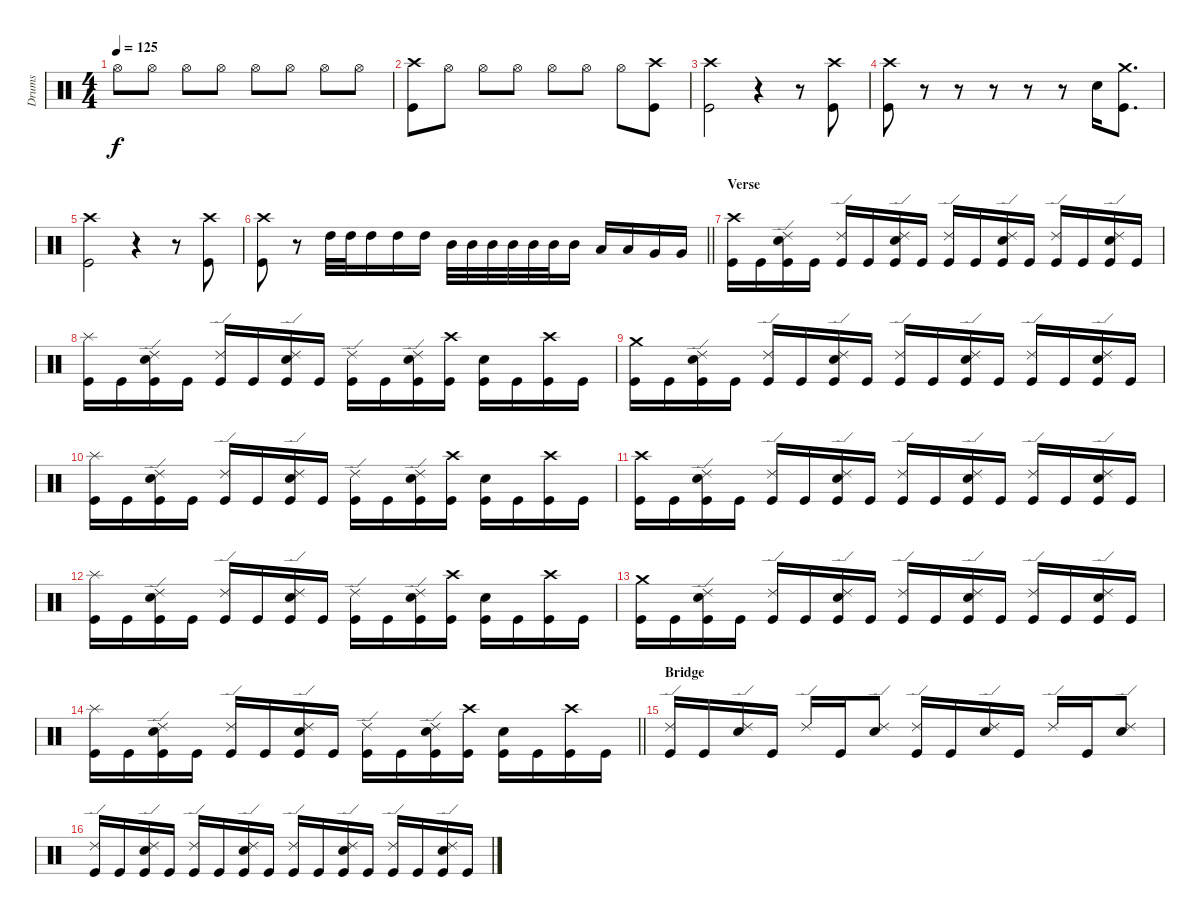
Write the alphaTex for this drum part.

\track ("Drums" "Drums") {instrument percussion}
\staff {score}
\articulation defaults
\ts (4 4)
\tempo 125
\clef neutral
\ks c "Hi-Hat (open)".8{dy f} "Hi-Hat (open)".8 "Hi-Hat (open)".8 "Hi-Hat (open)".8 "Hi-Hat (open)".8 "Hi-Hat (open)".8 "Hi-Hat (open)".8 "Hi-Hat (open)".8
|
("Crash high (hit)" "Kick (hit)").8 "Hi-Hat (open)".8 "Hi-Hat (open)".8 "Hi-Hat (open)".8 "Hi-Hat (open)".8 "Hi-Hat (open)".8 "Hi-Hat (open)".8 ("Crash high (hit)" "Kick (hit)").8 |
("Crash high (hit)" "Kick (hit)").2 r.4 r.8 ("Crash high (hit)" "Kick (hit)").8 |
("Crash high (hit)" "Kick (hit)").8 r.8 r.8 r.8 r.8 r.8 "Snare (hit) 2".16 ("Crash medium (hit)" "Kick (hit)").8{d} |
("Crash high (hit)" "Kick (hit)").2 r.4 r.8 ("Crash high (hit)" "Kick (hit)").8 |
\barLineRight lightlight
("Crash high (hit)" "Kick (hit)").8 r.8 "High Tom (hit)".32 "High Tom (hit)".32 "High Tom (hit)".16 "High Tom (hit)".16 "High Tom (hit)".16 "Mid Tom (hit)".32 "Mid Tom (hit)".32 "Mid Tom (hit)".32 "Mid Tom (hit)".32 "Mid Tom (hit)".32 "Mid Tom (hit)".32 "Mid Tom (hit)".16 "Low Tom (hit)".16 "Low Tom (hit)".16 "Very Low Tom (hit)".16 "Very Low Tom (hit)".16 |
\section ("" "Verse")
("Crash high (hit)" "Kick (hit)").16 "Kick (hit)".16 ("Ride (edge) 2" "Snare (hit) 2" "Kick (hit)").16 "Kick (hit)".16 ("Ride (edge) 2" "Kick (hit)").16 "Kick (hit)".16 ("Ride (edge) 2" "Snare (hit) 2" "Kick (hit)").16 "Kick (hit)".16 ("Ride (edge) 2" "Kick (hit)").16 "Kick (hit)".16 ("Ride (edge) 2" "Snare (hit) 2" "Kick (hit)").16 "Kick (hit)".16 ("Ride (edge) 2" "Kick (hit)").16 "Kick (hit)".16 ("Ride (edge) 2" "Snare (hit) 2" "Kick (hit)").16 "Kick (hit)".16 |
("Splash (hit)" "Kick (hit)").16 "Kick (hit)".16 ("Ride (edge) 2" "Snare (hit) 2" "Kick (hit)").16 "Kick (hit)".16 ("Ride (edge) 2" "Kick (hit)").16 "Kick (hit)".16 ("Ride (edge) 2" "Snare (hit) 2" "Kick (hit)").16 "Kick (hit)".16 ("Ride (edge) 2" "Kick (hit)").16 "Kick (hit)".16 ("Ride (edge) 2" "Snare (hit) 2" "Kick (hit)").16 ("Crash high (hit)" "Kick (hit)").16 ("Snare (hit) 2" "Kick (hit)").16 "Kick (hit)".16 ("Crash high (hit)" "Kick (hit)").16 "Kick (hit)".16 |
("Crash medium (hit)" "Kick (hit)").16 "Kick (hit)".16 ("Ride (edge) 2" "Snare (hit) 2" "Kick (hit)").16 "Kick (hit)".16 ("Ride (edge) 2" "Kick (hit)").16 "Kick (hit)".16 ("Ride (edge) 2" "Snare (hit) 2" "Kick (hit)").16 "Kick (hit)".16 ("Ride (edge) 2" "Kick (hit)").16 "Kick (hit)".16 ("Ride (edge) 2" "Snare (hit) 2" "Kick (hit)").16 "Kick (hit)".16 ("Ride (edge) 2" "Kick (hit)").16 "Kick (hit)".16 ("Ride (edge) 2" "Snare (hit) 2" "Kick (hit)").16 "Kick (hit)".16 |
("Splash (hit)" "Kick (hit)").16 "Kick (hit)".16 ("Ride (edge) 2" "Snare (hit) 2" "Kick (hit)").16 "Kick (hit)".16 ("Ride (edge) 2" "Kick (hit)").16 "Kick (hit)".16 ("Ride (edge) 2" "Snare (hit) 2" "Kick (hit)").16 "Kick (hit)".16 ("Ride (edge) 2" "Kick (hit)").16 "Kick (hit)".16 ("Ride (edge) 2" "Snare (hit) 2" "Kick (hit)").16 ("Crash high (hit)" "Kick (hit)").16 ("Snare (hit) 2" "Kick (hit)").16 "Kick (hit)".16 ("Crash high (hit)" "Kick (hit)").16 "Kick (hit)".16 |
("Crash high (hit)" "Kick (hit)").16 "Kick (hit)".16 ("Ride (edge) 2" "Snare (hit) 2" "Kick (hit)").16 "Kick (hit)".16 ("Ride (edge) 2" "Kick (hit)").16 "Kick (hit)".16 ("Ride (edge) 2" "Snare (hit) 2" "Kick (hit)").16 "Kick (hit)".16 ("Ride (edge) 2" "Kick (hit)").16 "Kick (hit)".16 ("Ride (edge) 2" "Snare (hit) 2" "Kick (hit)").16 "Kick (hit)".16 ("Ride (edge) 2" "Kick (hit)").16 "Kick (hit)".16 ("Ride (edge) 2" "Snare (hit) 2" "Kick (hit)").16 "Kick (hit)".16 |
("Splash (hit)" "Kick (hit)").16 "Kick (hit)".16 ("Ride (edge) 2" "Snare (hit) 2" "Kick (hit)").16 "Kick (hit)".16 ("Ride (edge) 2" "Kick (hit)").16 "Kick (hit)".16 ("Ride (edge) 2" "Snare (hit) 2" "Kick (hit)").16 "Kick (hit)".16 ("Ride (edge) 2" "Kick (hit)").16 "Kick (hit)".16 ("Ride (edge) 2" "Snare (hit) 2" "Kick (hit)").16 ("Crash high (hit)" "Kick (hit)").16 ("Snare (hit) 2" "Kick (hit)").16 "Kick (hit)".16 ("Crash high (hit)" "Kick (hit)").16 "Kick (hit)".16 |
("Crash medium (hit)" "Kick (hit)").16 "Kick (hit)".16 ("Ride (edge) 2" "Snare (hit) 2" "Kick (hit)").16 "Kick (hit)".16 ("Ride (edge) 2" "Kick (hit)").16 "Kick (hit)".16 ("Ride (edge) 2" "Snare (hit) 2" "Kick (hit)").16 "Kick (hit)".16 ("Ride (edge) 2" "Kick (hit)").16 "Kick (hit)".16 ("Ride (edge) 2" "Snare (hit) 2" "Kick (hit)").16 "Kick (hit)".16 ("Ride (edge) 2" "Kick (hit)").16 "Kick (hit)".16 ("Ride (edge) 2" "Snare (hit) 2" "Kick (hit)").16 "Kick (hit)".16 |
\barLineRight lightlight
("Splash (hit)" "Kick (hit)").16 "Kick (hit)".16 ("Ride (edge) 2" "Snare (hit) 2" "Kick (hit)").16 "Kick (hit)".16 ("Ride (edge) 2" "Kick (hit)").16 "Kick (hit)".16 ("Ride (edge) 2" "Snare (hit) 2" "Kick (hit)").16 "Kick (hit)".16 ("Ride (edge) 2" "Kick (hit)").16 "Kick (hit)".16 ("Ride (edge) 2" "Snare (hit) 2" "Kick (hit)").16 ("Crash high (hit)" "Kick (hit)").16 ("Snare (hit) 2" "Kick (hit)").16 "Kick (hit)".16 ("Crash high (hit)" "Kick (hit)").16 "Kick (hit)".16 |
\section ("" "Bridge")
("Ride (edge) 2" "Kick (hit)").16 "Kick (hit)".16 ("Ride (edge) 2" "Snare (hit) 2").16 "Kick (hit)".16 "Ride (edge) 2".16 "Kick (hit)".16 ("Ride (edge) 2" "Snare (hit) 2").8 ("Ride (edge) 2" "Kick (hit)").16 "Kick (hit)".16 ("Ride (edge) 2" "Snare (hit) 2").16 "Kick (hit)".16 "Ride (edge) 2".16 "Kick (hit)".16 ("Ride (edge) 2" "Snare (hit) 2").8 |
("Ride (edge) 2" "Kick (hit)").16 "Kick (hit)".16 ("Ride (edge) 2" "Snare (hit) 2" "Kick (hit)").16 "Kick (hit)".16 ("Ride (edge) 2" "Kick (hit)").16 "Kick (hit)".16 ("Ride (edge) 2" "Snare (hit) 2" "Kick (hit)").16 "Kick (hit)".16 ("Ride (edge) 2" "Kick (hit)").16 "Kick (hit)".16 ("Ride (edge) 2" "Snare (hit) 2" "Kick (hit)").16 "Kick (hit)".16 ("Ride (edge) 2" "Kick (hit)").16 "Kick (hit)".16 ("Ride (edge) 2" "Snare (hit) 2" "Kick (hit)").16 "Kick (hit)".16
